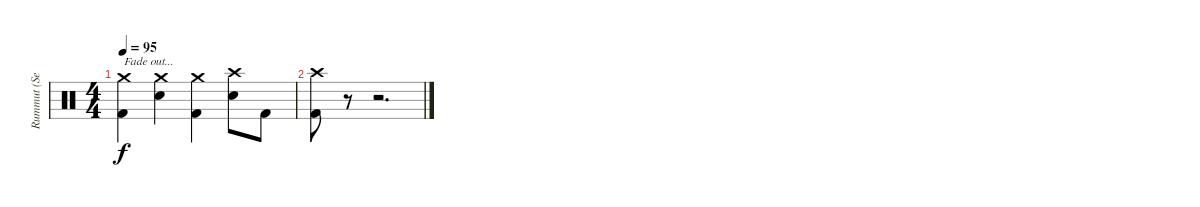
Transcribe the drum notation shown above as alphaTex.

\track ("Rummut (Seppo Pohjolainen)" "Rummut (Se") {instrument percussion}
\staff {score}
\articulation defaults
\ts (4 4)
\tempo 95
\clef neutral
\ks c
("Crash medium (hit)" "Kick (hit) 2").4{txt "Fade out..." dy f} ("Crash medium (hit)" "Snare (hit) 2").4 ("Crash medium (hit)" "Kick (hit) 2").4 ("Crash high (hit)" "Snare (hit) 2").8 "Kick (hit) 2".8 |
("Crash high (hit)" "Kick (hit) 2").8 r.8 r.2{d}
